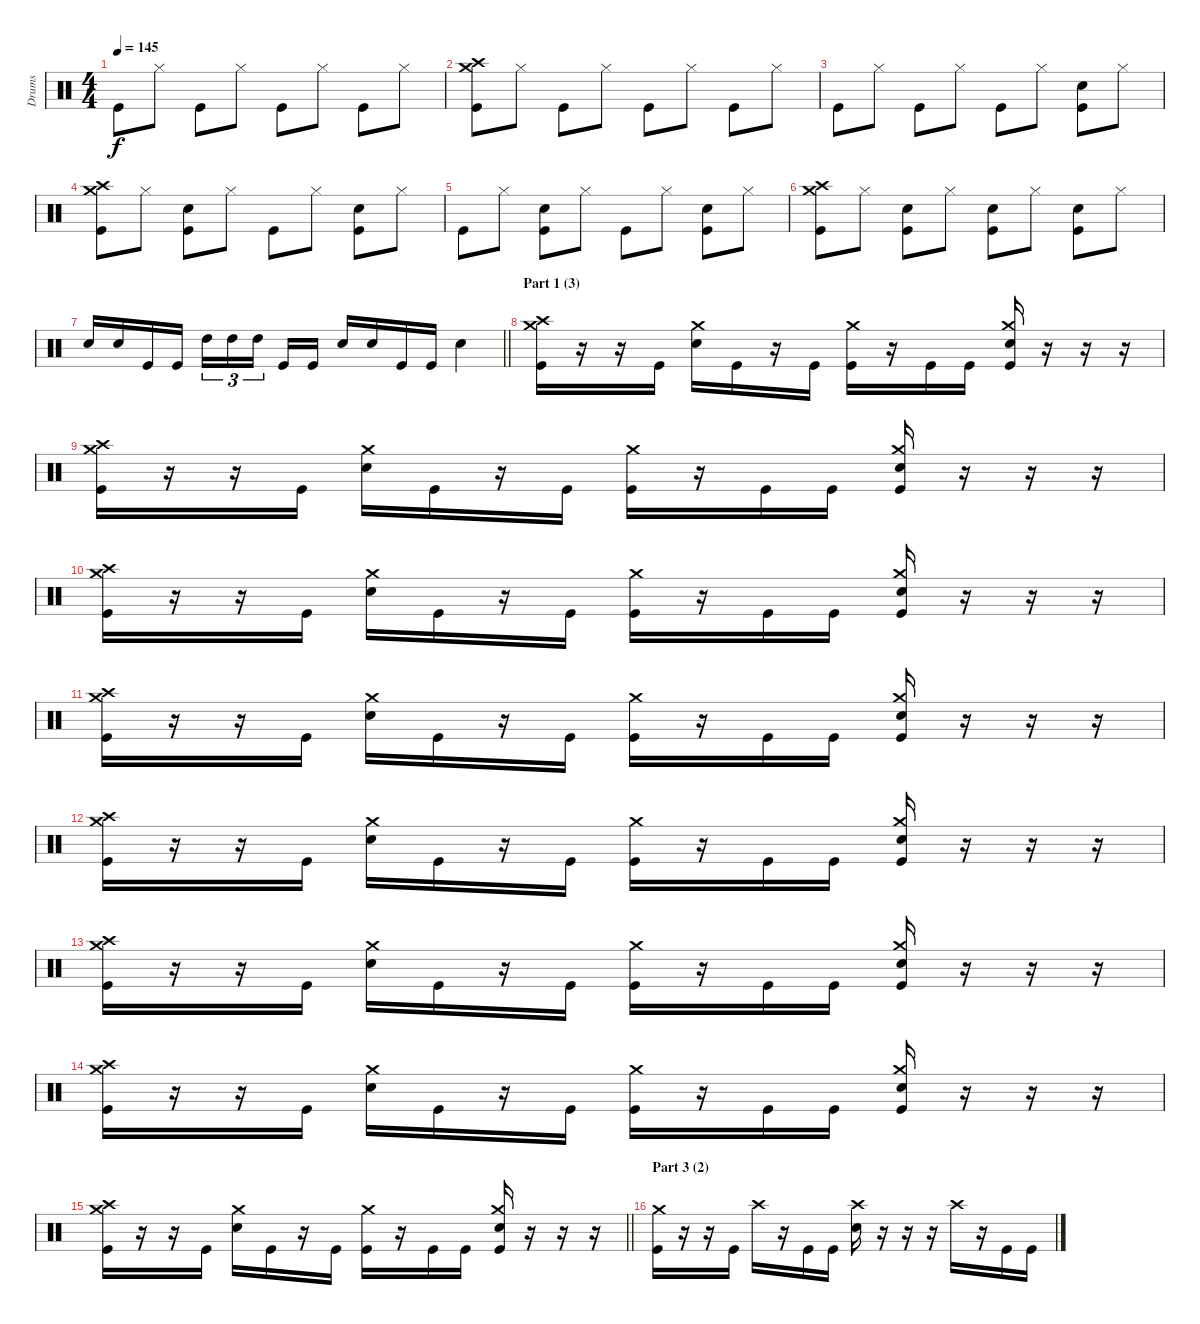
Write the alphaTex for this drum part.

\track ("Drums" "Drums") {instrument percussion}
\staff {score}
\articulation defaults
\ts (4 4)
\tempo 145
\clef neutral
\ks c "Kick (hit)".8{dy f} "Hi-Hat (closed)".8 "Kick (hit)".8 "Hi-Hat (closed)".8 "Kick (hit)".8 "Hi-Hat (closed)".8 "Kick (hit)".8 "Hi-Hat (closed)".8
|
("Crash high (hit)" "Crash medium (hit)" "Kick (hit)").8 "Hi-Hat (closed)".8 "Kick (hit)".8 "Hi-Hat (closed)".8 "Kick (hit)".8 "Hi-Hat (closed)".8 "Kick (hit)".8 "Hi-Hat (closed)".8 |
"Kick (hit)".8 "Hi-Hat (closed)".8 "Kick (hit)".8 "Hi-Hat (closed)".8 "Kick (hit)".8 "Hi-Hat (closed)".8 ("Snare (hit) 2" "Kick (hit)").8 "Hi-Hat (closed)".8 |
("Crash high (hit)" "Crash medium (hit)" "Kick (hit)").8 "Hi-Hat (closed)".8 ("Snare (hit) 2" "Kick (hit)").8 "Hi-Hat (closed)".8 "Kick (hit)".8 "Hi-Hat (closed)".8 ("Snare (hit) 2" "Kick (hit)").8 "Hi-Hat (closed)".8 |
"Kick (hit)".8 "Hi-Hat (closed)".8 ("Snare (hit) 2" "Kick (hit)").8 "Hi-Hat (closed)".8 "Kick (hit)".8 "Hi-Hat (closed)".8 ("Snare (hit) 2" "Kick (hit)").8 "Hi-Hat (closed)".8 |
("Crash high (hit)" "Crash medium (hit)" "Kick (hit)").8 "Hi-Hat (closed)".8 ("Snare (hit) 2" "Kick (hit)").8 "Hi-Hat (closed)".8 ("Snare (hit) 2" "Kick (hit)").8 "Hi-Hat (closed)".8 ("Snare (hit) 2" "Kick (hit)").8 "Hi-Hat (closed)".8 |
\barLineRight lightlight "Snare (hit) 2".16 "Snare (hit) 2".16 "Kick (hit)".16 "Kick (hit)".16 "High Tom (hit)".16{tu (3 2)} "High Tom (hit)".16{tu (3 2)} "High Tom (hit)".16{tu (3 2) beam splitsecondary} "Kick (hit)".16 "Kick (hit)".16 "Snare (hit) 2".16 "Snare (hit) 2".16 "Kick (hit)".16 "Kick (hit)".16 "Snare (hit) 2".4
|
\section ("" "Part 1 (3)")
("Crash high (hit)" "Crash medium (hit)" "Kick (hit)").16 r.16 r.16 "Kick (hit)".16 ("Crash medium (hit)" "Snare (hit) 2").16 "Kick (hit)".16 r.16 "Kick (hit)".16 ("Crash medium (hit)" "Kick (hit)").16 r.16 "Kick (hit)".16 "Kick (hit)".16 ("Crash medium (hit)" "Snare (hit) 2" "Kick (hit)").16 r.16 r.16 r.16 |
("Crash high (hit)" "Crash medium (hit)" "Kick (hit)").16 r.16 r.16 "Kick (hit)".16 ("Crash medium (hit)" "Snare (hit) 2").16 "Kick (hit)".16 r.16 "Kick (hit)".16 ("Crash medium (hit)" "Kick (hit)").16 r.16 "Kick (hit)".16 "Kick (hit)".16 ("Crash medium (hit)" "Snare (hit) 2" "Kick (hit)").16 r.16 r.16 r.16 |
("Crash high (hit)" "Crash medium (hit)" "Kick (hit)").16 r.16 r.16 "Kick (hit)".16 ("Crash medium (hit)" "Snare (hit) 2").16 "Kick (hit)".16 r.16 "Kick (hit)".16 ("Crash medium (hit)" "Kick (hit)").16 r.16 "Kick (hit)".16 "Kick (hit)".16 ("Crash medium (hit)" "Snare (hit) 2" "Kick (hit)").16 r.16 r.16 r.16 |
("Crash high (hit)" "Crash medium (hit)" "Kick (hit)").16 r.16 r.16 "Kick (hit)".16 ("Crash medium (hit)" "Snare (hit) 2").16 "Kick (hit)".16 r.16 "Kick (hit)".16 ("Crash medium (hit)" "Kick (hit)").16 r.16 "Kick (hit)".16 "Kick (hit)".16 ("Crash medium (hit)" "Snare (hit) 2" "Kick (hit)").16 r.16 r.16 r.16 |
("Crash high (hit)" "Crash medium (hit)" "Kick (hit)").16 r.16 r.16 "Kick (hit)".16 ("Crash medium (hit)" "Snare (hit) 2").16 "Kick (hit)".16 r.16 "Kick (hit)".16 ("Crash medium (hit)" "Kick (hit)").16 r.16 "Kick (hit)".16 "Kick (hit)".16 ("Crash medium (hit)" "Snare (hit) 2" "Kick (hit)").16 r.16 r.16 r.16 |
("Crash high (hit)" "Crash medium (hit)" "Kick (hit)").16 r.16 r.16 "Kick (hit)".16 ("Crash medium (hit)" "Snare (hit) 2").16 "Kick (hit)".16 r.16 "Kick (hit)".16 ("Crash medium (hit)" "Kick (hit)").16 r.16 "Kick (hit)".16 "Kick (hit)".16 ("Crash medium (hit)" "Snare (hit) 2" "Kick (hit)").16 r.16 r.16 r.16 |
("Crash high (hit)" "Crash medium (hit)" "Kick (hit)").16 r.16 r.16 "Kick (hit)".16 ("Crash medium (hit)" "Snare (hit) 2").16 "Kick (hit)".16 r.16 "Kick (hit)".16 ("Crash medium (hit)" "Kick (hit)").16 r.16 "Kick (hit)".16 "Kick (hit)".16 ("Crash medium (hit)" "Snare (hit) 2" "Kick (hit)").16 r.16 r.16 r.16 |
\barLineRight lightlight
("Crash high (hit)" "Crash medium (hit)" "Kick (hit)").16 r.16 r.16 "Kick (hit)".16 ("Crash medium (hit)" "Snare (hit) 2").16 "Kick (hit)".16 r.16 "Kick (hit)".16 ("Crash medium (hit)" "Kick (hit)").16 r.16 "Kick (hit)".16 "Kick (hit)".16 ("Crash medium (hit)" "Snare (hit) 2" "Kick (hit)").16 r.16 r.16 r.16 |
\section ("" "Part 3 (2)")
("Crash medium (hit)" "Kick (hit)").16 r.16 r.16 "Kick (hit)".16 "Crash high (hit)".16 r.16 "Kick (hit)".16 "Kick (hit)".16 ("Crash high (hit)" "Snare (hit) 2").16 r.16 r.16 r.16 "Crash high (hit)".16 r.16 "Kick (hit)".16 "Kick (hit)".16
